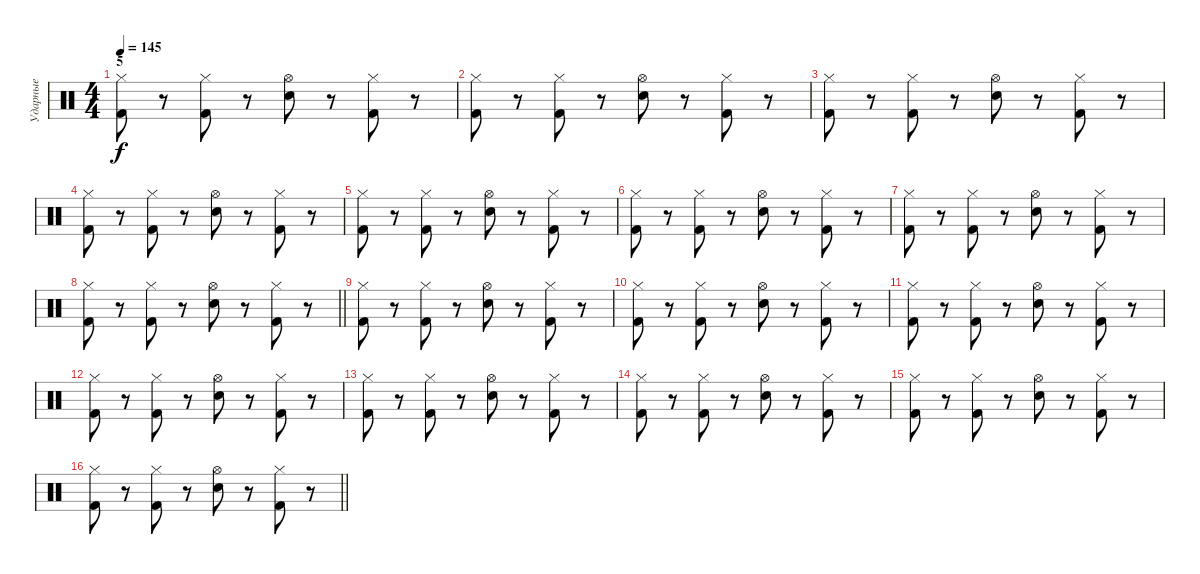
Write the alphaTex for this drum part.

\track ("Ударные" "Ударные") {instrument percussion}
\staff {score}
\articulation defaults
\ts (4 4)
\section ("" "5")
\tempo 145
\clef neutral
\ks c
("Hi-Hat (closed)" "Kick (hit) 2").8{dy f} r.8 ("Hi-Hat (closed)" "Kick (hit) 2").8 r.8 ("Hi-Hat (open)" "Snare (hit) 2").8 r.8 ("Hi-Hat (closed)" "Kick (hit) 2").8 r.8 |
("Hi-Hat (closed)" "Kick (hit) 2").8 r.8 ("Hi-Hat (closed)" "Kick (hit) 2").8 r.8 ("Hi-Hat (open)" "Snare (hit) 2").8 r.8 ("Hi-Hat (closed)" "Kick (hit) 2").8 r.8 |
("Hi-Hat (closed)" "Kick (hit) 2").8 r.8 ("Hi-Hat (closed)" "Kick (hit) 2").8 r.8 ("Hi-Hat (open)" "Snare (hit) 2").8 r.8 ("Hi-Hat (closed)" "Kick (hit) 2").8 r.8 |
("Hi-Hat (closed)" "Kick (hit) 2").8 r.8 ("Hi-Hat (closed)" "Kick (hit) 2").8 r.8 ("Hi-Hat (open)" "Snare (hit) 2").8 r.8 ("Hi-Hat (closed)" "Kick (hit) 2").8 r.8 |
("Hi-Hat (closed)" "Kick (hit) 2").8 r.8 ("Hi-Hat (closed)" "Kick (hit) 2").8 r.8 ("Hi-Hat (open)" "Snare (hit) 2").8 r.8 ("Hi-Hat (closed)" "Kick (hit) 2").8 r.8 |
("Hi-Hat (closed)" "Kick (hit) 2").8 r.8 ("Hi-Hat (closed)" "Kick (hit) 2").8 r.8 ("Hi-Hat (open)" "Snare (hit) 2").8 r.8 ("Hi-Hat (closed)" "Kick (hit) 2").8 r.8 |
("Hi-Hat (closed)" "Kick (hit) 2").8 r.8 ("Hi-Hat (closed)" "Kick (hit) 2").8 r.8 ("Hi-Hat (open)" "Snare (hit) 2").8 r.8 ("Hi-Hat (closed)" "Kick (hit) 2").8 r.8 |
\barLineRight lightlight
("Hi-Hat (closed)" "Kick (hit) 2").8 r.8 ("Hi-Hat (closed)" "Kick (hit) 2").8 r.8 ("Hi-Hat (open)" "Snare (hit) 2").8 r.8 ("Hi-Hat (closed)" "Kick (hit) 2").8 r.8 |
("Hi-Hat (closed)" "Kick (hit) 2").8 r.8 ("Hi-Hat (closed)" "Kick (hit) 2").8 r.8 ("Hi-Hat (open)" "Snare (hit) 2").8 r.8 ("Hi-Hat (closed)" "Kick (hit) 2").8 r.8 |
("Hi-Hat (closed)" "Kick (hit) 2").8 r.8 ("Hi-Hat (closed)" "Kick (hit) 2").8 r.8 ("Hi-Hat (open)" "Snare (hit) 2").8 r.8 ("Hi-Hat (closed)" "Kick (hit) 2").8 r.8 |
("Hi-Hat (closed)" "Kick (hit) 2").8 r.8 ("Hi-Hat (closed)" "Kick (hit) 2").8 r.8 ("Hi-Hat (open)" "Snare (hit) 2").8 r.8 ("Hi-Hat (closed)" "Kick (hit) 2").8 r.8 |
("Hi-Hat (closed)" "Kick (hit) 2").8 r.8 ("Hi-Hat (closed)" "Kick (hit) 2").8 r.8 ("Hi-Hat (open)" "Snare (hit) 2").8 r.8 ("Hi-Hat (closed)" "Kick (hit) 2").8 r.8 |
("Hi-Hat (closed)" "Kick (hit) 2").8 r.8 ("Hi-Hat (closed)" "Kick (hit) 2").8 r.8 ("Hi-Hat (open)" "Snare (hit) 2").8 r.8 ("Hi-Hat (closed)" "Kick (hit) 2").8 r.8 |
("Hi-Hat (closed)" "Kick (hit) 2").8 r.8 ("Hi-Hat (closed)" "Kick (hit) 2").8 r.8 ("Hi-Hat (open)" "Snare (hit) 2").8 r.8 ("Hi-Hat (closed)" "Kick (hit) 2").8 r.8 |
("Hi-Hat (closed)" "Kick (hit) 2").8 r.8 ("Hi-Hat (closed)" "Kick (hit) 2").8 r.8 ("Hi-Hat (open)" "Snare (hit) 2").8 r.8 ("Hi-Hat (closed)" "Kick (hit) 2").8 r.8 |
\barLineRight lightlight
("Hi-Hat (closed)" "Kick (hit) 2").8 r.8 ("Hi-Hat (closed)" "Kick (hit) 2").8 r.8 ("Hi-Hat (open)" "Snare (hit) 2").8 r.8 ("Hi-Hat (closed)" "Kick (hit) 2").8 r.8
